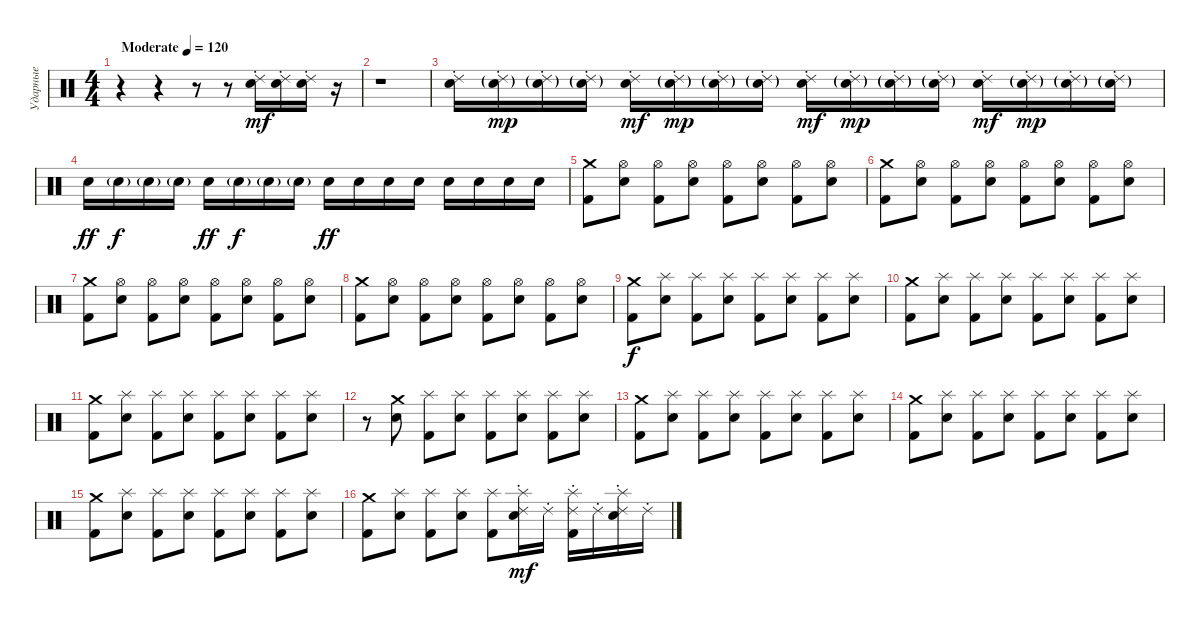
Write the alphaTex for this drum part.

\track ("Ударные" "Ударные") {instrument percussion}
\staff {score}
\articulation defaults
\ts (4 4)
\tempo (120 "Moderate")
\clef neutral
\ks c
r.4{dy mf} r.4 r.8 r.8 ("Ride (choke) 2" "Electric Snare (hit)").16 ("Ride (choke) 2" "Electric Snare (hit)").16 ("Ride (choke) 2" "Electric Snare (hit)").16 r.16 |
r.1 |
("Ride (choke) 2" "Electric Snare (hit)").16 ("Ride (choke) 2"{g} "Electric Snare (hit)"{g}).16{dy mp} ("Ride (choke) 2"{g} "Electric Snare (hit)"{g}).16 ("Ride (choke) 2"{g} "Electric Snare (hit)"{g}).16 ("Ride (choke) 2" "Electric Snare (hit)").16{dy mf} ("Ride (choke) 2"{g} "Electric Snare (hit)"{g}).16{dy mp} ("Ride (choke) 2"{g} "Electric Snare (hit)"{g}).16 ("Ride (choke) 2"{g} "Electric Snare (hit)"{g}).16 ("Ride (choke) 2" "Electric Snare (hit)").16{dy mf} ("Ride (choke) 2"{g} "Electric Snare (hit)"{g}).16{dy mp} ("Ride (choke) 2"{g} "Electric Snare (hit)"{g}).16 ("Ride (choke) 2"{g} "Electric Snare (hit)"{g}).16 ("Ride (choke) 2" "Electric Snare (hit)").16{dy mf} ("Ride (choke) 2"{g} "Electric Snare (hit)"{g}).16{dy mp} ("Ride (choke) 2"{g} "Electric Snare (hit)"{g}).16 ("Ride (choke) 2"{g} "Electric Snare (hit)"{g}).16 |
"Electric Snare (hit)".16{dy ff} "Electric Snare (hit)"{g}.16{dy f} "Electric Snare (hit)"{g}.16 "Electric Snare (hit)"{g}.16 "Electric Snare (hit)".16{dy ff} "Electric Snare (hit)"{g}.16{dy f} "Electric Snare (hit)"{g}.16 "Electric Snare (hit)"{g}.16 "Electric Snare (hit)".16{dy ff} "Electric Snare (hit)".16 "Electric Snare (hit)".16 "Electric Snare (hit)".16 "Electric Snare (hit)".16 "Electric Snare (hit)".16 "Electric Snare (hit)".16 "Electric Snare (hit)".16 |
("Crash medium (hit)" "Kick (hit) 2").8 ("Hi-Hat (open)" "Electric Snare (hit)").8 ("Hi-Hat (open)" "Kick (hit) 2").8 ("Hi-Hat (open)" "Electric Snare (hit)").8 ("Hi-Hat (open)" "Kick (hit) 2").8 ("Hi-Hat (open)" "Electric Snare (hit)").8 ("Hi-Hat (open)" "Kick (hit) 2").8 ("Hi-Hat (open)" "Electric Snare (hit)").8 |
("Crash medium (hit)" "Kick (hit) 2").8 ("Hi-Hat (open)" "Electric Snare (hit)").8 ("Hi-Hat (open)" "Kick (hit) 2").8 ("Hi-Hat (open)" "Electric Snare (hit)").8 ("Hi-Hat (open)" "Kick (hit) 2").8 ("Hi-Hat (open)" "Electric Snare (hit)").8 ("Hi-Hat (open)" "Kick (hit) 2").8 ("Hi-Hat (open)" "Electric Snare (hit)").8 |
("Crash medium (hit)" "Kick (hit) 2").8 ("Hi-Hat (open)" "Electric Snare (hit)").8 ("Hi-Hat (open)" "Kick (hit) 2").8 ("Hi-Hat (open)" "Electric Snare (hit)").8 ("Hi-Hat (open)" "Kick (hit) 2").8 ("Hi-Hat (open)" "Electric Snare (hit)").8 ("Hi-Hat (open)" "Kick (hit) 2").8 ("Hi-Hat (open)" "Electric Snare (hit)").8 |
("Crash medium (hit)" "Kick (hit) 2").8 ("Hi-Hat (open)" "Electric Snare (hit)").8 ("Hi-Hat (open)" "Kick (hit) 2").8 ("Hi-Hat (open)" "Electric Snare (hit)").8 ("Hi-Hat (open)" "Kick (hit) 2").8 ("Hi-Hat (open)" "Electric Snare (hit)").8 ("Hi-Hat (open)" "Kick (hit) 2").8 ("Hi-Hat (open)" "Electric Snare (hit)").8 |
("Crash medium (hit)" "Kick (hit) 2").8{dy f} ("Splash (hit)" "Electric Snare (hit)").8 ("Splash (hit)" "Kick (hit) 2").8 ("Splash (hit)" "Electric Snare (hit)").8 ("Splash (hit)" "Kick (hit) 2").8 ("Splash (hit)" "Electric Snare (hit)").8 ("Splash (hit)" "Kick (hit) 2").8 ("Splash (hit)" "Electric Snare (hit)").8 |
("Crash medium (hit)" "Kick (hit) 2").8 ("Splash (hit)" "Electric Snare (hit)").8 ("Splash (hit)" "Kick (hit) 2").8 ("Splash (hit)" "Electric Snare (hit)").8 ("Splash (hit)" "Kick (hit) 2").8 ("Splash (hit)" "Electric Snare (hit)").8 ("Splash (hit)" "Kick (hit) 2").8 ("Splash (hit)" "Electric Snare (hit)").8 |
("Crash medium (hit)" "Kick (hit) 2").8 ("Splash (hit)" "Electric Snare (hit)").8 ("Splash (hit)" "Kick (hit) 2").8 ("Splash (hit)" "Electric Snare (hit)").8 ("Splash (hit)" "Kick (hit) 2").8 ("Splash (hit)" "Electric Snare (hit)").8 ("Splash (hit)" "Kick (hit) 2").8 ("Splash (hit)" "Electric Snare (hit)").8 |
r.8 ("Crash medium (hit)" "Electric Snare (hit)").8 ("Splash (hit)" "Kick (hit) 2").8 ("Splash (hit)" "Electric Snare (hit)").8 ("Splash (hit)" "Kick (hit) 2").8 ("Splash (hit)" "Electric Snare (hit)").8 ("Splash (hit)" "Kick (hit) 2").8 ("Splash (hit)" "Electric Snare (hit)").8 |
("Crash medium (hit)" "Kick (hit) 2").8 ("Splash (hit)" "Electric Snare (hit)").8 ("Splash (hit)" "Kick (hit) 2").8 ("Splash (hit)" "Electric Snare (hit)").8 ("Splash (hit)" "Kick (hit) 2").8 ("Splash (hit)" "Electric Snare (hit)").8 ("Splash (hit)" "Kick (hit) 2").8 ("Splash (hit)" "Electric Snare (hit)").8 |
("Crash medium (hit)" "Kick (hit) 2").8 ("Splash (hit)" "Electric Snare (hit)").8 ("Splash (hit)" "Kick (hit) 2").8 ("Splash (hit)" "Electric Snare (hit)").8 ("Splash (hit)" "Kick (hit) 2").8 ("Splash (hit)" "Electric Snare (hit)").8 ("Splash (hit)" "Kick (hit) 2").8 ("Splash (hit)" "Electric Snare (hit)").8 |
("Crash medium (hit)" "Kick (hit) 2").8 ("Splash (hit)" "Electric Snare (hit)").8 ("Splash (hit)" "Kick (hit) 2").8 ("Splash (hit)" "Electric Snare (hit)").8 ("Splash (hit)" "Kick (hit) 2").8 ("Splash (hit)" "Electric Snare (hit)").8 ("Splash (hit)" "Kick (hit) 2").8 ("Splash (hit)" "Electric Snare (hit)").8 |
("Crash medium (hit)" "Kick (hit) 2").8 ("Splash (hit)" "Electric Snare (hit)").8 ("Splash (hit)" "Kick (hit) 2").8 ("Splash (hit)" "Electric Snare (hit)").8 ("Splash (hit)" "Kick (hit) 2").8 ("Splash (hit)" "Electric Snare (hit)" "Ride (choke) 2").16{dy mf} "Ride (choke) 2".16 ("Splash (hit)" "Kick (hit) 2" "Ride (choke) 2").16 "Ride (choke) 2".16 ("Splash (hit)" "Electric Snare (hit)" "Ride (choke) 2").16 "Ride (choke) 2".16
